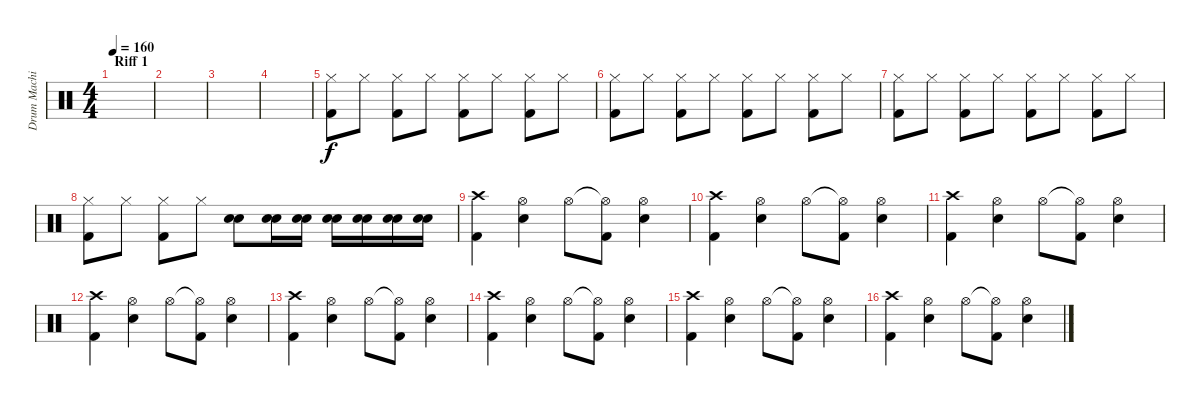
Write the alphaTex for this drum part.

\track ("Drum Machine" "Drum Machi") {instrument percussion}
\staff {score}
\articulation defaults
\ts (4 4)
\section ("" "Riff 1")
\tempo 160
\clef neutral
\ks c
|
|
|
|
("Hi-Hat (closed)" "Kick (hit) 2").8 "Hi-Hat (closed)".8 ("Hi-Hat (closed)" "Kick (hit) 2").8 "Hi-Hat (closed)".8 ("Hi-Hat (closed)" "Kick (hit) 2").8 "Hi-Hat (closed)".8 ("Hi-Hat (closed)" "Kick (hit) 2").8 "Hi-Hat (closed)".8 |
("Hi-Hat (closed)" "Kick (hit) 2").8 "Hi-Hat (closed)".8 ("Hi-Hat (closed)" "Kick (hit) 2").8 "Hi-Hat (closed)".8 ("Hi-Hat (closed)" "Kick (hit) 2").8 "Hi-Hat (closed)".8 ("Hi-Hat (closed)" "Kick (hit) 2").8 "Hi-Hat (closed)".8 |
("Hi-Hat (closed)" "Kick (hit) 2").8 "Hi-Hat (closed)".8 ("Hi-Hat (closed)" "Kick (hit) 2").8 "Hi-Hat (closed)".8 ("Hi-Hat (closed)" "Kick (hit) 2").8 "Hi-Hat (closed)".8 ("Hi-Hat (closed)" "Kick (hit) 2").8 "Hi-Hat (closed)".8 |
("Hi-Hat (closed)" "Kick (hit) 2").8 "Hi-Hat (closed)".8 ("Hi-Hat (closed)" "Kick (hit) 2").8 "Hi-Hat (closed)".8 ("Electric Snare (hit)" "Electric Snare (hit)").8 ("Electric Snare (hit)" "Electric Snare (hit)").16 ("Electric Snare (hit)" "Electric Snare (hit)").16 ("Electric Snare (hit)" "Electric Snare (hit)").16 ("Electric Snare (hit)" "Electric Snare (hit)").16 ("Electric Snare (hit)" "Electric Snare (hit)").16 ("Electric Snare (hit)" "Electric Snare (hit)").16 |
("Crash high (hit)" "Kick (hit) 2").4 ("Hi-Hat (open)" "Electric Snare (hit)").4 "Hi-Hat (open)".8 ("Hi-Hat (open)"{t} "Kick (hit) 2").8 ("Hi-Hat (open)" "Electric Snare (hit)").4 |
("Crash high (hit)" "Kick (hit) 2").4 ("Hi-Hat (open)" "Electric Snare (hit)").4 "Hi-Hat (open)".8 ("Hi-Hat (open)"{t} "Kick (hit) 2").8 ("Hi-Hat (open)" "Electric Snare (hit)").4 |
("Crash high (hit)" "Kick (hit) 2").4 ("Hi-Hat (open)" "Electric Snare (hit)").4 "Hi-Hat (open)".8 ("Hi-Hat (open)"{t} "Kick (hit) 2").8 ("Hi-Hat (open)" "Electric Snare (hit)").4 |
("Crash high (hit)" "Kick (hit) 2").4 ("Hi-Hat (open)" "Electric Snare (hit)").4 "Hi-Hat (open)".8 ("Hi-Hat (open)"{t} "Kick (hit) 2").8 ("Hi-Hat (open)" "Electric Snare (hit)").4 |
("Crash high (hit)" "Kick (hit) 2").4 ("Hi-Hat (open)" "Electric Snare (hit)").4 "Hi-Hat (open)".8 ("Hi-Hat (open)"{t} "Kick (hit) 2").8 ("Hi-Hat (open)" "Electric Snare (hit)").4 |
("Crash high (hit)" "Kick (hit) 2").4 ("Hi-Hat (open)" "Electric Snare (hit)").4 "Hi-Hat (open)".8 ("Hi-Hat (open)"{t} "Kick (hit) 2").8 ("Hi-Hat (open)" "Electric Snare (hit)").4 |
("Crash high (hit)" "Kick (hit) 2").4 ("Hi-Hat (open)" "Electric Snare (hit)").4 "Hi-Hat (open)".8 ("Hi-Hat (open)"{t} "Kick (hit) 2").8 ("Hi-Hat (open)" "Electric Snare (hit)").4 |
("Crash high (hit)" "Kick (hit) 2").4 ("Hi-Hat (open)" "Electric Snare (hit)").4 "Hi-Hat (open)".8 ("Hi-Hat (open)"{t} "Kick (hit) 2").8 ("Hi-Hat (open)" "Electric Snare (hit)").4
